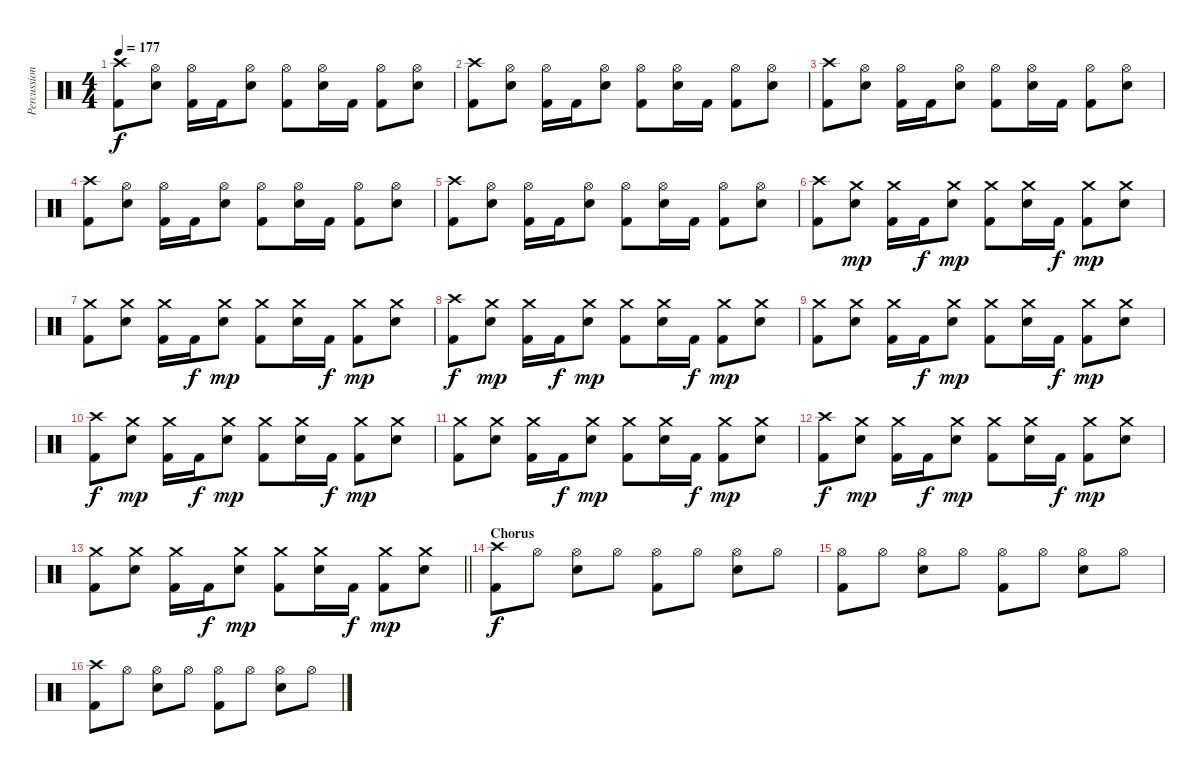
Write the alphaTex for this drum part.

\track ("Percussion" "Percussion") {instrument percussion}
\staff {score}
\articulation defaults
\ts (4 4)
\tempo 177
\clef neutral
\ks c
("Crash high (hit)" "Kick (hit) 2").8{dy f} ("Hi-Hat (open)" "Snare (hit) 2").8 ("Hi-Hat (open)" "Kick (hit) 2").16 "Kick (hit) 2".16 ("Hi-Hat (open)" "Snare (hit) 2").8 ("Hi-Hat (open)" "Kick (hit) 2").8 ("Hi-Hat (open)" "Snare (hit) 2").16 "Kick (hit) 2".16 ("Hi-Hat (open)" "Kick (hit) 2").8 ("Hi-Hat (open)" "Snare (hit) 2").8 |
("Crash high (hit)" "Kick (hit) 2").8 ("Hi-Hat (open)" "Snare (hit) 2").8 ("Hi-Hat (open)" "Kick (hit) 2").16 "Kick (hit) 2".16 ("Hi-Hat (open)" "Snare (hit) 2").8 ("Hi-Hat (open)" "Kick (hit) 2").8 ("Hi-Hat (open)" "Snare (hit) 2").16 "Kick (hit) 2".16 ("Hi-Hat (open)" "Kick (hit) 2").8 ("Hi-Hat (open)" "Snare (hit) 2").8 |
("Crash high (hit)" "Kick (hit) 2").8 ("Hi-Hat (open)" "Snare (hit) 2").8 ("Hi-Hat (open)" "Kick (hit) 2").16 "Kick (hit) 2".16 ("Hi-Hat (open)" "Snare (hit) 2").8 ("Hi-Hat (open)" "Kick (hit) 2").8 ("Hi-Hat (open)" "Snare (hit) 2").16 "Kick (hit) 2".16 ("Hi-Hat (open)" "Kick (hit) 2").8 ("Hi-Hat (open)" "Snare (hit) 2").8 |
("Crash high (hit)" "Kick (hit) 2").8 ("Hi-Hat (open)" "Snare (hit) 2").8 ("Hi-Hat (open)" "Kick (hit) 2").16 "Kick (hit) 2".16 ("Hi-Hat (open)" "Snare (hit) 2").8 ("Hi-Hat (open)" "Kick (hit) 2").8 ("Hi-Hat (open)" "Snare (hit) 2").16 "Kick (hit) 2".16 ("Hi-Hat (open)" "Kick (hit) 2").8 ("Hi-Hat (open)" "Snare (hit) 2").8 |
("Crash high (hit)" "Kick (hit) 2").8 ("Hi-Hat (open)" "Snare (hit) 2").8 ("Hi-Hat (open)" "Kick (hit) 2").16 "Kick (hit) 2".16 ("Hi-Hat (open)" "Snare (hit) 2").8 ("Hi-Hat (open)" "Kick (hit) 2").8 ("Hi-Hat (open)" "Snare (hit) 2").16 "Kick (hit) 2".16 ("Hi-Hat (open)" "Kick (hit) 2").8 ("Hi-Hat (open)" "Snare (hit) 2").8 |
("Crash high (hit)" "Kick (hit) 2").8 ("Crash medium (hit)" "Snare (hit) 2").8{dy mp} ("Crash medium (hit)" "Kick (hit) 2").16 "Kick (hit) 2".16{dy f} ("Crash medium (hit)" "Snare (hit) 2").8{dy mp} ("Crash medium (hit)" "Kick (hit) 2").8 ("Crash medium (hit)" "Snare (hit) 2").16 "Kick (hit) 2".16{dy f} ("Crash medium (hit)" "Kick (hit) 2").8{dy mp} ("Crash medium (hit)" "Snare (hit) 2").8 |
("Crash medium (hit)" "Kick (hit) 2").8 ("Crash medium (hit)" "Snare (hit) 2").8 ("Crash medium (hit)" "Kick (hit) 2").16 "Kick (hit) 2".16{dy f} ("Crash medium (hit)" "Snare (hit) 2").8{dy mp} ("Crash medium (hit)" "Kick (hit) 2").8 ("Crash medium (hit)" "Snare (hit) 2").16 "Kick (hit) 2".16{dy f} ("Crash medium (hit)" "Kick (hit) 2").8{dy mp} ("Crash medium (hit)" "Snare (hit) 2").8 |
("Crash high (hit)" "Kick (hit) 2").8{dy f} ("Crash medium (hit)" "Snare (hit) 2").8{dy mp} ("Crash medium (hit)" "Kick (hit) 2").16 "Kick (hit) 2".16{dy f} ("Crash medium (hit)" "Snare (hit) 2").8{dy mp} ("Crash medium (hit)" "Kick (hit) 2").8 ("Crash medium (hit)" "Snare (hit) 2").16 "Kick (hit) 2".16{dy f} ("Crash medium (hit)" "Kick (hit) 2").8{dy mp} ("Crash medium (hit)" "Snare (hit) 2").8 |
("Crash medium (hit)" "Kick (hit) 2").8 ("Crash medium (hit)" "Snare (hit) 2").8 ("Crash medium (hit)" "Kick (hit) 2").16 "Kick (hit) 2".16{dy f} ("Crash medium (hit)" "Snare (hit) 2").8{dy mp} ("Crash medium (hit)" "Kick (hit) 2").8 ("Crash medium (hit)" "Snare (hit) 2").16 "Kick (hit) 2".16{dy f} ("Crash medium (hit)" "Kick (hit) 2").8{dy mp} ("Crash medium (hit)" "Snare (hit) 2").8 |
("Crash high (hit)" "Kick (hit) 2").8{dy f} ("Crash medium (hit)" "Snare (hit) 2").8{dy mp} ("Crash medium (hit)" "Kick (hit) 2").16 "Kick (hit) 2".16{dy f} ("Crash medium (hit)" "Snare (hit) 2").8{dy mp} ("Crash medium (hit)" "Kick (hit) 2").8 ("Crash medium (hit)" "Snare (hit) 2").16 "Kick (hit) 2".16{dy f} ("Crash medium (hit)" "Kick (hit) 2").8{dy mp} ("Crash medium (hit)" "Snare (hit) 2").8 |
("Crash medium (hit)" "Kick (hit) 2").8 ("Crash medium (hit)" "Snare (hit) 2").8 ("Crash medium (hit)" "Kick (hit) 2").16 "Kick (hit) 2".16{dy f} ("Crash medium (hit)" "Snare (hit) 2").8{dy mp} ("Crash medium (hit)" "Kick (hit) 2").8 ("Crash medium (hit)" "Snare (hit) 2").16 "Kick (hit) 2".16{dy f} ("Crash medium (hit)" "Kick (hit) 2").8{dy mp} ("Crash medium (hit)" "Snare (hit) 2").8 |
("Crash high (hit)" "Kick (hit) 2").8{dy f} ("Crash medium (hit)" "Snare (hit) 2").8{dy mp} ("Crash medium (hit)" "Kick (hit) 2").16 "Kick (hit) 2".16{dy f} ("Crash medium (hit)" "Snare (hit) 2").8{dy mp} ("Crash medium (hit)" "Kick (hit) 2").8 ("Crash medium (hit)" "Snare (hit) 2").16 "Kick (hit) 2".16{dy f} ("Crash medium (hit)" "Kick (hit) 2").8{dy mp} ("Crash medium (hit)" "Snare (hit) 2").8 |
\barLineRight lightlight
("Crash medium (hit)" "Kick (hit) 2").8 ("Crash medium (hit)" "Snare (hit) 2").8 ("Crash medium (hit)" "Kick (hit) 2").16 "Kick (hit) 2".16{dy f} ("Crash medium (hit)" "Snare (hit) 2").8{dy mp} ("Crash medium (hit)" "Kick (hit) 2").8 ("Crash medium (hit)" "Snare (hit) 2").16 "Kick (hit) 2".16{dy f} ("Crash medium (hit)" "Kick (hit) 2").8{dy mp} ("Crash medium (hit)" "Snare (hit) 2").8 |
\section ("" "Chorus")
("Crash high (hit)" "Kick (hit) 2").8{dy f} "Hi-Hat (open)".8 ("Hi-Hat (open)" "Snare (hit) 2").8 "Hi-Hat (open)".8 ("Hi-Hat (open)" "Kick (hit) 2").8 "Hi-Hat (open)".8 ("Hi-Hat (open)" "Snare (hit) 2").8 "Hi-Hat (open)".8 |
("Hi-Hat (open)" "Kick (hit) 2").8 "Hi-Hat (open)".8 ("Hi-Hat (open)" "Snare (hit) 2").8 "Hi-Hat (open)".8 ("Hi-Hat (open)" "Kick (hit) 2").8 "Hi-Hat (open)".8 ("Hi-Hat (open)" "Snare (hit) 2").8 "Hi-Hat (open)".8 |
("Crash high (hit)" "Kick (hit) 2").8 "Hi-Hat (open)".8 ("Hi-Hat (open)" "Snare (hit) 2").8 "Hi-Hat (open)".8 ("Hi-Hat (open)" "Kick (hit) 2").8 "Hi-Hat (open)".8 ("Hi-Hat (open)" "Snare (hit) 2").8 "Hi-Hat (open)".8
